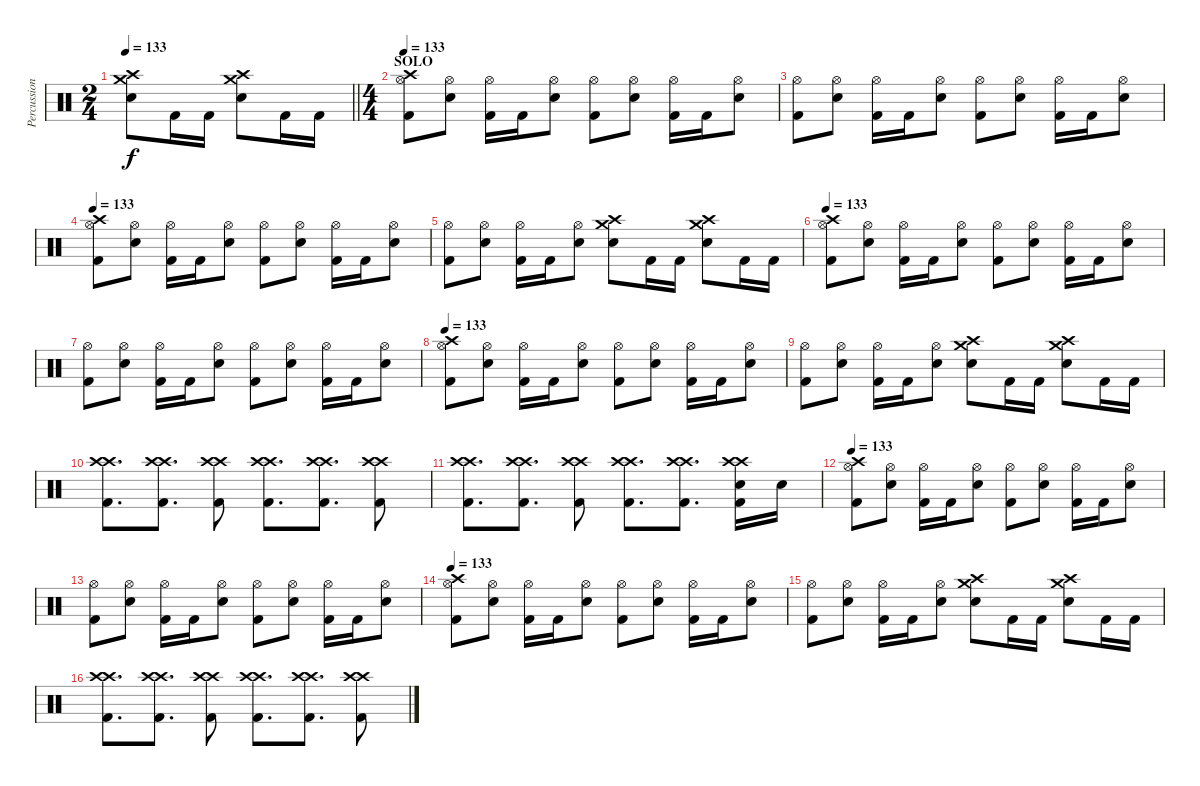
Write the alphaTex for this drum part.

\track ("Percussion" "Percussion") {instrument percussion}
\staff {score}
\articulation defaults
\ts (2 4)
\tempo 133
\clef neutral
\barLineRight lightlight
\ks c
("Crash medium (hit)" "Crash high (hit)" "Snare (hit) 2").8{dy f} "Kick (hit) 2".16 "Kick (hit) 2".16 ("Crash high (hit)" "Crash medium (hit)" "Snare (hit) 2").8 "Kick (hit) 2".16 "Kick (hit) 2".16 |
\ts (4 4)
\section ("" "SOLO")
\tempo 133
("Crash high (hit)" "Hi-Hat (open)" "Kick (hit) 2").8 ("Hi-Hat (open)" "Snare (hit) 2").8 ("Hi-Hat (open)" "Kick (hit) 2").16 "Kick (hit) 2".16 ("Hi-Hat (open)" "Snare (hit) 2").8 ("Hi-Hat (open)" "Kick (hit) 2").8 ("Hi-Hat (open)" "Snare (hit) 2").8 ("Hi-Hat (open)" "Kick (hit) 2").16 "Kick (hit) 2".16 ("Hi-Hat (open)" "Snare (hit) 2").8 |
("Hi-Hat (open)" "Kick (hit) 2").8 ("Hi-Hat (open)" "Snare (hit) 2").8 ("Hi-Hat (open)" "Kick (hit) 2").16 "Kick (hit) 2".16 ("Hi-Hat (open)" "Snare (hit) 2").8 ("Hi-Hat (open)" "Kick (hit) 2").8 ("Hi-Hat (open)" "Snare (hit) 2").8 ("Hi-Hat (open)" "Kick (hit) 2").16 "Kick (hit) 2".16 ("Hi-Hat (open)" "Snare (hit) 2").8 |
\tempo 133
("Crash high (hit)" "Hi-Hat (open)" "Kick (hit) 2").8 ("Hi-Hat (open)" "Snare (hit) 2").8 ("Hi-Hat (open)" "Kick (hit) 2").16 "Kick (hit) 2".16 ("Hi-Hat (open)" "Snare (hit) 2").8 ("Hi-Hat (open)" "Kick (hit) 2").8 ("Hi-Hat (open)" "Snare (hit) 2").8 ("Hi-Hat (open)" "Kick (hit) 2").16 "Kick (hit) 2".16 ("Hi-Hat (open)" "Snare (hit) 2").8 |
("Hi-Hat (open)" "Kick (hit) 2").8 ("Hi-Hat (open)" "Snare (hit) 2").8 ("Hi-Hat (open)" "Kick (hit) 2").16 "Kick (hit) 2".16 ("Hi-Hat (open)" "Snare (hit) 2").8 ("Crash medium (hit)" "Crash high (hit)" "Snare (hit) 2").8 "Kick (hit) 2".16 "Kick (hit) 2".16 ("Crash high (hit)" "Crash medium (hit)" "Snare (hit) 2").8 "Kick (hit) 2".16 "Kick (hit) 2".16 |
\tempo 133
("Crash high (hit)" "Hi-Hat (open)" "Kick (hit) 2").8 ("Hi-Hat (open)" "Snare (hit) 2").8 ("Hi-Hat (open)" "Kick (hit) 2").16 "Kick (hit) 2".16 ("Hi-Hat (open)" "Snare (hit) 2").8 ("Hi-Hat (open)" "Kick (hit) 2").8 ("Hi-Hat (open)" "Snare (hit) 2").8 ("Hi-Hat (open)" "Kick (hit) 2").16 "Kick (hit) 2".16 ("Hi-Hat (open)" "Snare (hit) 2").8 |
("Hi-Hat (open)" "Kick (hit) 2").8 ("Hi-Hat (open)" "Snare (hit) 2").8 ("Hi-Hat (open)" "Kick (hit) 2").16 "Kick (hit) 2".16 ("Hi-Hat (open)" "Snare (hit) 2").8 ("Hi-Hat (open)" "Kick (hit) 2").8 ("Hi-Hat (open)" "Snare (hit) 2").8 ("Hi-Hat (open)" "Kick (hit) 2").16 "Kick (hit) 2".16 ("Hi-Hat (open)" "Snare (hit) 2").8 |
\tempo 133
("Crash high (hit)" "Hi-Hat (open)" "Kick (hit) 2").8 ("Hi-Hat (open)" "Snare (hit) 2").8 ("Hi-Hat (open)" "Kick (hit) 2").16 "Kick (hit) 2".16 ("Hi-Hat (open)" "Snare (hit) 2").8 ("Hi-Hat (open)" "Kick (hit) 2").8 ("Hi-Hat (open)" "Snare (hit) 2").8 ("Hi-Hat (open)" "Kick (hit) 2").16 "Kick (hit) 2".16 ("Hi-Hat (open)" "Snare (hit) 2").8 |
("Hi-Hat (open)" "Kick (hit) 2").8 ("Hi-Hat (open)" "Snare (hit) 2").8 ("Hi-Hat (open)" "Kick (hit) 2").16 "Kick (hit) 2".16 ("Hi-Hat (open)" "Snare (hit) 2").8 ("Crash medium (hit)" "Crash high (hit)" "Snare (hit) 2").8 "Kick (hit) 2".16 "Kick (hit) 2".16 ("Crash high (hit)" "Crash medium (hit)" "Snare (hit) 2").8 "Kick (hit) 2".16 "Kick (hit) 2".16 |
("Crash high (hit)" "Crash high (hit)" "Kick (hit) 2").8{d} ("Crash high (hit)" "Crash high (hit)" "Kick (hit) 2").8{d} ("Crash high (hit)" "Crash high (hit)" "Kick (hit) 2").8 ("Crash high (hit)" "Crash high (hit)" "Kick (hit) 2").8{d} ("Crash high (hit)" "Crash high (hit)" "Kick (hit) 2").8{d} ("Crash high (hit)" "Crash high (hit)" "Kick (hit) 2").8 |
("Crash high (hit)" "Crash high (hit)" "Kick (hit) 2").8{d} ("Crash high (hit)" "Crash high (hit)" "Kick (hit) 2").8{d} ("Crash high (hit)" "Crash high (hit)" "Kick (hit) 2").8 ("Crash high (hit)" "Crash high (hit)" "Kick (hit) 2").8{d} ("Crash high (hit)" "Crash high (hit)" "Kick (hit) 2").8{d} ("Crash high (hit)" "Crash high (hit)" "Snare (hit) 2" "Kick (hit) 2").16 "Snare (hit) 2".16 |
\tempo 133
("Crash high (hit)" "Hi-Hat (open)" "Kick (hit) 2").8 ("Hi-Hat (open)" "Snare (hit) 2").8 ("Hi-Hat (open)" "Kick (hit) 2").16 "Kick (hit) 2".16 ("Hi-Hat (open)" "Snare (hit) 2").8 ("Hi-Hat (open)" "Kick (hit) 2").8 ("Hi-Hat (open)" "Snare (hit) 2").8 ("Hi-Hat (open)" "Kick (hit) 2").16 "Kick (hit) 2".16 ("Hi-Hat (open)" "Snare (hit) 2").8 |
("Hi-Hat (open)" "Kick (hit) 2").8 ("Hi-Hat (open)" "Snare (hit) 2").8 ("Hi-Hat (open)" "Kick (hit) 2").16 "Kick (hit) 2".16 ("Hi-Hat (open)" "Snare (hit) 2").8 ("Hi-Hat (open)" "Kick (hit) 2").8 ("Hi-Hat (open)" "Snare (hit) 2").8 ("Hi-Hat (open)" "Kick (hit) 2").16 "Kick (hit) 2".16 ("Hi-Hat (open)" "Snare (hit) 2").8 |
\tempo 133
("Crash high (hit)" "Hi-Hat (open)" "Kick (hit) 2").8 ("Hi-Hat (open)" "Snare (hit) 2").8 ("Hi-Hat (open)" "Kick (hit) 2").16 "Kick (hit) 2".16 ("Hi-Hat (open)" "Snare (hit) 2").8 ("Hi-Hat (open)" "Kick (hit) 2").8 ("Hi-Hat (open)" "Snare (hit) 2").8 ("Hi-Hat (open)" "Kick (hit) 2").16 "Kick (hit) 2".16 ("Hi-Hat (open)" "Snare (hit) 2").8 |
("Hi-Hat (open)" "Kick (hit) 2").8 ("Hi-Hat (open)" "Snare (hit) 2").8 ("Hi-Hat (open)" "Kick (hit) 2").16 "Kick (hit) 2".16 ("Hi-Hat (open)" "Snare (hit) 2").8 ("Crash medium (hit)" "Crash high (hit)" "Snare (hit) 2").8 "Kick (hit) 2".16 "Kick (hit) 2".16 ("Crash high (hit)" "Crash medium (hit)" "Snare (hit) 2").8 "Kick (hit) 2".16 "Kick (hit) 2".16 |
("Crash high (hit)" "Crash high (hit)" "Kick (hit) 2").8{d} ("Crash high (hit)" "Crash high (hit)" "Kick (hit) 2").8{d} ("Crash high (hit)" "Crash high (hit)" "Kick (hit) 2").8 ("Crash high (hit)" "Crash high (hit)" "Kick (hit) 2").8{d} ("Crash high (hit)" "Crash high (hit)" "Kick (hit) 2").8{d} ("Crash high (hit)" "Crash high (hit)" "Kick (hit) 2").8
